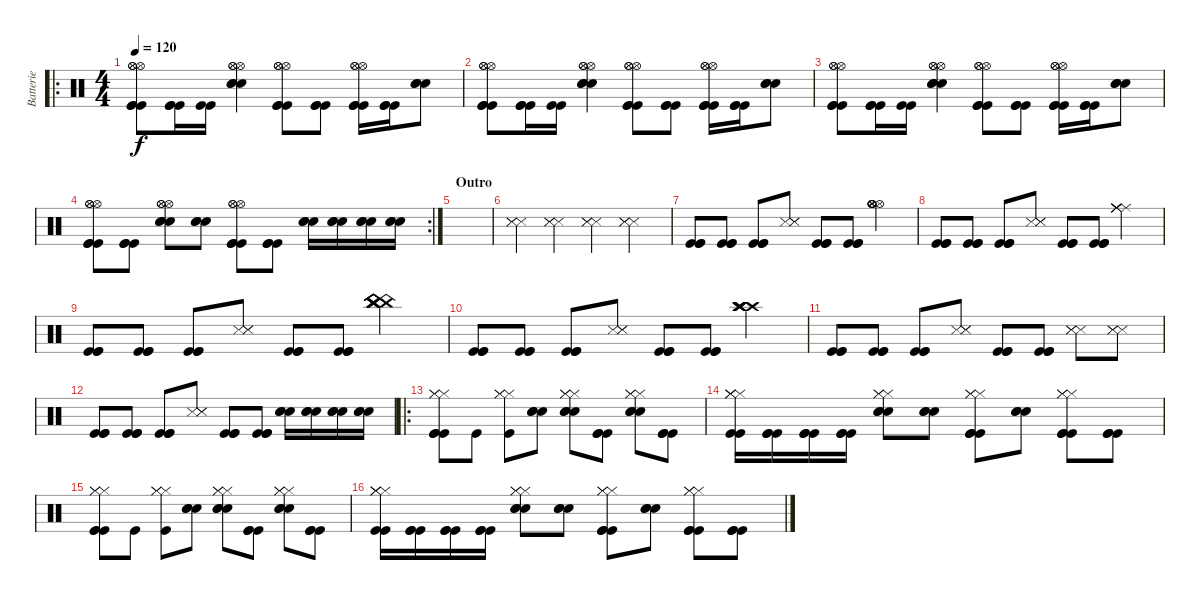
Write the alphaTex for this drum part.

\track ("Batterie" "Batterie") {instrument percussion}
\staff {score}
\articulation defaults
\ro
\ts (4 4)
\tempo 120
\clef neutral
\ks c
("Kick (hit)" "Kick (hit)" "Kick (hit)" "Hi-Hat (open)" "Hi-Hat (open)" "Hi-Hat (open)").8{dy f} ("Kick (hit)" "Kick (hit)" "Kick (hit)").16 ("Kick (hit)" "Kick (hit)").16 ("Hi-Hat (open)" "Snare (hit) 2" "Snare (hit) 2" "Snare (hit) 2" "Hi-Hat (open)" "Hi-Hat (open)").4 ("Hi-Hat (open)" "Hi-Hat (open)" "Hi-Hat (open)" "Kick (hit)" "Kick (hit)" "Kick (hit)").8 ("Kick (hit)" "Kick (hit)" "Kick (hit)").8 ("Kick (hit)" "Kick (hit)" "Kick (hit)" "Hi-Hat (open)" "Hi-Hat (open)" "Hi-Hat (open)").16 ("Kick (hit)" "Kick (hit)" "Kick (hit)").16 ("Snare (hit) 2" "Snare (hit) 2" "Snare (hit) 2").8 |
("Kick (hit)" "Kick (hit)" "Kick (hit)" "Hi-Hat (open)" "Hi-Hat (open)" "Hi-Hat (open)").8 ("Kick (hit)" "Kick (hit)" "Kick (hit)").16 ("Kick (hit)" "Kick (hit)").16 ("Hi-Hat (open)" "Snare (hit) 2" "Snare (hit) 2" "Snare (hit) 2" "Hi-Hat (open)" "Hi-Hat (open)").4 ("Hi-Hat (open)" "Hi-Hat (open)" "Hi-Hat (open)" "Kick (hit)" "Kick (hit)" "Kick (hit)").8 ("Kick (hit)" "Kick (hit)" "Kick (hit)").8 ("Kick (hit)" "Kick (hit)" "Kick (hit)" "Hi-Hat (open)" "Hi-Hat (open)" "Hi-Hat (open)").16 ("Kick (hit)" "Kick (hit)" "Kick (hit)").16 ("Snare (hit) 2" "Snare (hit) 2" "Snare (hit) 2").8 |
("Kick (hit)" "Kick (hit)" "Kick (hit)" "Hi-Hat (open)" "Hi-Hat (open)" "Hi-Hat (open)").8 ("Kick (hit)" "Kick (hit)" "Kick (hit)").16 ("Kick (hit)" "Kick (hit)").16 ("Hi-Hat (open)" "Snare (hit) 2" "Snare (hit) 2" "Snare (hit) 2" "Hi-Hat (open)" "Hi-Hat (open)").4 ("Hi-Hat (open)" "Hi-Hat (open)" "Hi-Hat (open)" "Kick (hit)" "Kick (hit)" "Kick (hit)").8 ("Kick (hit)" "Kick (hit)" "Kick (hit)").8 ("Kick (hit)" "Kick (hit)" "Kick (hit)" "Hi-Hat (open)" "Hi-Hat (open)" "Hi-Hat (open)").16 ("Kick (hit)" "Kick (hit)" "Kick (hit)").16 ("Snare (hit) 2" "Snare (hit) 2" "Snare (hit) 2").8 |
\rc 2
("Hi-Hat (open)" "Hi-Hat (open)" "Hi-Hat (open)" "Kick (hit)" "Kick (hit)" "Kick (hit)").8 ("Kick (hit)" "Kick (hit)" "Kick (hit)").8 ("Hi-Hat (open)" "Hi-Hat (open)" "Snare (hit) 2" "Snare (hit) 2" "Snare (hit) 2" "Hi-Hat (open)").8 ("Snare (hit) 2" "Snare (hit) 2" "Snare (hit) 2").8 ("Hi-Hat (open)" "Hi-Hat (open)" "Hi-Hat (open)" "Kick (hit)" "Kick (hit)" "Kick (hit)").8 ("Kick (hit)" "Kick (hit)" "Kick (hit)").8 ("Snare (hit) 2" "Snare (hit) 2" "Snare (hit) 2").16 ("Snare (hit) 2" "Snare (hit) 2" "Snare (hit) 2").16 ("Snare (hit) 2" "Snare (hit) 2" "Snare (hit) 2").16 ("Snare (hit) 2" "Snare (hit) 2" "Snare (hit) 2").16 |
\section ("" "Outro")
|
("Snare (side stick) 3" "Snare (side stick) 3" "Snare (side stick) 3").4 ("Snare (side stick) 3" "Snare (side stick) 3" "Snare (side stick) 3").4 ("Snare (side stick) 3" "Snare (side stick) 3" "Snare (side stick) 3").4 ("Snare (side stick) 3" "Snare (side stick) 3" "Snare (side stick) 3").4 |
("Kick (hit)" "Kick (hit)" "Kick (hit)").8 ("Kick (hit)" "Kick (hit)" "Kick (hit)").8 ("Kick (hit)" "Kick (hit)" "Kick (hit)").8 ("Snare (side stick) 3" "Snare (side stick) 3" "Snare (side stick) 3").8 ("Kick (hit)" "Kick (hit)" "Kick (hit)").8 ("Kick (hit)" "Kick (hit)" "Kick (hit)").8 ("Hi-Hat (open)" "Hi-Hat (open)" "Hi-Hat (open)" "Hi-Hat (open)" "Hi-Hat (open)" "Hi-Hat (open)").4 |
("Kick (hit)" "Kick (hit)" "Kick (hit)").8 ("Kick (hit)" "Kick (hit)" "Kick (hit)").8 ("Kick (hit)" "Kick (hit)" "Kick (hit)").8 ("Snare (side stick) 3" "Snare (side stick) 3" "Snare (side stick) 3").8 ("Kick (hit)" "Kick (hit)" "Kick (hit)").8 ("Kick (hit)" "Kick (hit)" "Kick (hit)").8 ("Ride (middle)" "Ride (middle)" "Ride (middle)" "Ride (middle)" "Ride (middle)" "Ride (middle)").4 |
("Kick (hit)" "Kick (hit)" "Kick (hit)").8 ("Kick (hit)" "Kick (hit)" "Kick (hit)").8 ("Kick (hit)" "Kick (hit)" "Kick (hit)").8 ("Snare (side stick) 3" "Snare (side stick) 3" "Snare (side stick) 3").8 ("Kick (hit)" "Kick (hit)" "Kick (hit)").8 ("Kick (hit)" "Kick (hit)" "Kick (hit)").8 ("China (hit)" "China (hit)" "China (hit)" "China (hit)" "China (hit)" "China (hit)").4 |
("Kick (hit)" "Kick (hit)" "Kick (hit)").8 ("Kick (hit)" "Kick (hit)" "Kick (hit)").8 ("Kick (hit)" "Kick (hit)" "Kick (hit)").8 ("Snare (side stick) 3" "Snare (side stick) 3" "Snare (side stick) 3").8 ("Kick (hit)" "Kick (hit)" "Kick (hit)").8 ("Kick (hit)" "Kick (hit)" "Kick (hit)").8 ("Crash high (hit)" "Crash high (hit)" "Crash high (hit)" "Crash high (hit)" "Crash high (hit)" "Crash high (hit)").4 |
("Kick (hit)" "Kick (hit)" "Kick (hit)").8 ("Kick (hit)" "Kick (hit)" "Kick (hit)").8 ("Kick (hit)" "Kick (hit)" "Kick (hit)").8 ("Snare (side stick) 3" "Snare (side stick) 3" "Snare (side stick) 3").8 ("Kick (hit)" "Kick (hit)" "Kick (hit)").8 ("Kick (hit)" "Kick (hit)" "Kick (hit)").8 ("Snare (side stick) 3" "Snare (side stick) 3" "Snare (side stick) 3").8 ("Snare (side stick) 3" "Snare (side stick) 3" "Snare (side stick) 3").8 |
("Kick (hit)" "Kick (hit)" "Kick (hit)").8 ("Kick (hit)" "Kick (hit)" "Kick (hit)").8 ("Kick (hit)" "Kick (hit)" "Kick (hit)").8 ("Snare (side stick) 3" "Snare (side stick) 3" "Snare (side stick) 3").8 ("Kick (hit)" "Kick (hit)" "Kick (hit)").8 ("Kick (hit)" "Kick (hit)" "Kick (hit)").8 ("Snare (hit) 2" "Snare (hit) 2" "Snare (hit) 2").16 ("Snare (hit) 2" "Snare (hit) 2" "Snare (hit) 2").16 ("Snare (hit) 2" "Snare (hit) 2" "Snare (hit) 2").16 ("Snare (hit) 2" "Snare (hit) 2" "Snare (hit) 2").16 |
\ro
("Hi-Hat (closed)" "Hi-Hat (closed)" "Hi-Hat (closed)" "Kick (hit)" "Kick (hit)" "Kick (hit)").8 "Kick (hit)".8 ("Hi-Hat (closed)" "Hi-Hat (closed)" "Hi-Hat (closed)" "Kick (hit)").8 ("Snare (hit) 2" "Snare (hit) 2" "Snare (hit) 2").8 ("Hi-Hat (closed)" "Hi-Hat (closed)" "Hi-Hat (closed)" "Snare (hit) 2" "Snare (hit) 2" "Snare (hit) 2").8 ("Kick (hit)" "Kick (hit)" "Kick (hit)").8 ("Snare (hit) 2" "Snare (hit) 2" "Snare (hit) 2" "Hi-Hat (closed)" "Hi-Hat (closed)" "Hi-Hat (closed)").8 ("Kick (hit)" "Kick (hit)" "Kick (hit)").8 |
("Hi-Hat (closed)" "Hi-Hat (closed)" "Hi-Hat (closed)" "Hi-Hat (closed)" "Kick (hit)" "Kick (hit)").16 ("Kick (hit)" "Kick (hit)" "Kick (hit)").16 ("Kick (hit)" "Kick (hit)" "Kick (hit)").16 ("Kick (hit)" "Kick (hit)" "Kick (hit)").16 ("Hi-Hat (closed)" "Hi-Hat (closed)" "Hi-Hat (closed)" "Snare (hit) 2" "Snare (hit) 2" "Snare (hit) 2").8 ("Snare (hit) 2" "Snare (hit) 2" "Snare (hit) 2").8 ("Hi-Hat (closed)" "Hi-Hat (closed)" "Hi-Hat (closed)" "Kick (hit)" "Kick (hit)" "Kick (hit)").8 ("Snare (hit) 2" "Snare (hit) 2" "Snare (hit) 2").8 ("Hi-Hat (closed)" "Hi-Hat (closed)" "Hi-Hat (closed)" "Kick (hit)" "Kick (hit)" "Kick (hit)").8 ("Kick (hit)" "Kick (hit)" "Kick (hit)").8 |
("Hi-Hat (closed)" "Hi-Hat (closed)" "Hi-Hat (closed)" "Kick (hit)" "Kick (hit)" "Kick (hit)").8 "Kick (hit)".8 ("Hi-Hat (closed)" "Hi-Hat (closed)" "Hi-Hat (closed)" "Kick (hit)").8 ("Snare (hit) 2" "Snare (hit) 2" "Snare (hit) 2").8 ("Hi-Hat (closed)" "Hi-Hat (closed)" "Hi-Hat (closed)" "Snare (hit) 2" "Snare (hit) 2" "Snare (hit) 2").8 ("Kick (hit)" "Kick (hit)" "Kick (hit)").8 ("Snare (hit) 2" "Snare (hit) 2" "Snare (hit) 2" "Hi-Hat (closed)" "Hi-Hat (closed)" "Hi-Hat (closed)").8 ("Kick (hit)" "Kick (hit)" "Kick (hit)").8 |
("Hi-Hat (closed)" "Hi-Hat (closed)" "Hi-Hat (closed)" "Hi-Hat (closed)" "Kick (hit)" "Kick (hit)").16 ("Kick (hit)" "Kick (hit)" "Kick (hit)").16 ("Kick (hit)" "Kick (hit)" "Kick (hit)").16 ("Kick (hit)" "Kick (hit)" "Kick (hit)").16 ("Hi-Hat (closed)" "Hi-Hat (closed)" "Hi-Hat (closed)" "Snare (hit) 2" "Snare (hit) 2" "Snare (hit) 2").8 ("Snare (hit) 2" "Snare (hit) 2" "Snare (hit) 2").8 ("Hi-Hat (closed)" "Hi-Hat (closed)" "Hi-Hat (closed)" "Kick (hit)" "Kick (hit)" "Kick (hit)").8 ("Snare (hit) 2" "Snare (hit) 2" "Snare (hit) 2").8 ("Hi-Hat (closed)" "Hi-Hat (closed)" "Hi-Hat (closed)" "Kick (hit)" "Kick (hit)" "Kick (hit)").8 ("Kick (hit)" "Kick (hit)" "Kick (hit)").8
